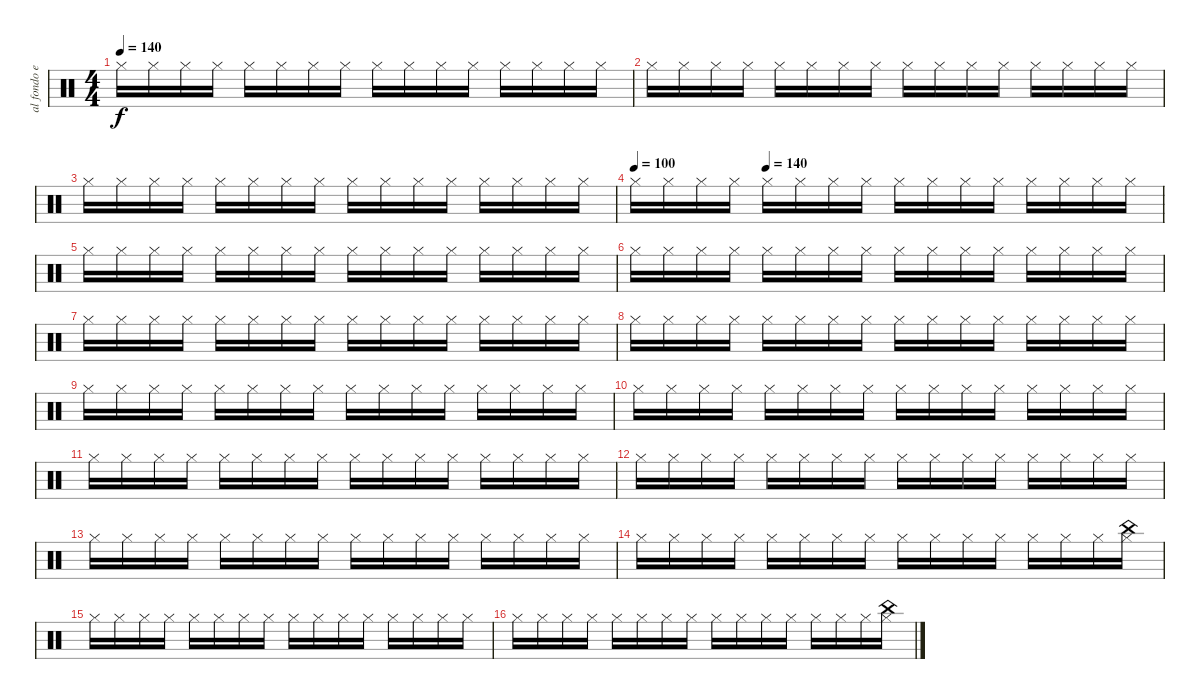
\track ("al fondo en la bateria Mr Pedro Andreu" "al fondo e") {instrument percussion}
\staff {score}
\articulation defaults
\ts (4 4)
\tempo 140
\clef neutral
\ks c "Hi-Hat (closed)".16{dy f} "Hi-Hat (closed)".16 "Hi-Hat (closed)".16 "Hi-Hat (closed)".16 "Hi-Hat (closed)".16 "Hi-Hat (closed)".16 "Hi-Hat (closed)".16 "Hi-Hat (closed)".16 "Hi-Hat (closed)".16 "Hi-Hat (closed)".16 "Hi-Hat (closed)".16 "Hi-Hat (closed)".16 "Hi-Hat (closed)".16 "Hi-Hat (closed)".16 "Hi-Hat (closed)".16 "Hi-Hat (closed)".16
|
"Hi-Hat (closed)".16 "Hi-Hat (closed)".16 "Hi-Hat (closed)".16 "Hi-Hat (closed)".16 "Hi-Hat (closed)".16 "Hi-Hat (closed)".16 "Hi-Hat (closed)".16 "Hi-Hat (closed)".16 "Hi-Hat (closed)".16 "Hi-Hat (closed)".16 "Hi-Hat (closed)".16 "Hi-Hat (closed)".16 "Hi-Hat (closed)".16 "Hi-Hat (closed)".16 "Hi-Hat (closed)".16 "Hi-Hat (closed)".16 |
"Hi-Hat (closed)".16 "Hi-Hat (closed)".16 "Hi-Hat (closed)".16 "Hi-Hat (closed)".16 "Hi-Hat (closed)".16 "Hi-Hat (closed)".16 "Hi-Hat (closed)".16 "Hi-Hat (closed)".16 "Hi-Hat (closed)".16 "Hi-Hat (closed)".16 "Hi-Hat (closed)".16 "Hi-Hat (closed)".16 "Hi-Hat (closed)".16 "Hi-Hat (closed)".16 "Hi-Hat (closed)".16 "Hi-Hat (closed)".16 |
\tempo 100
\tempo (140 0.25)
"Hi-Hat (closed)".16 "Hi-Hat (closed)".16 "Hi-Hat (closed)".16 "Hi-Hat (closed)".16 "Hi-Hat (closed)".16 "Hi-Hat (closed)".16 "Hi-Hat (closed)".16 "Hi-Hat (closed)".16 "Hi-Hat (closed)".16 "Hi-Hat (closed)".16 "Hi-Hat (closed)".16 "Hi-Hat (closed)".16 "Hi-Hat (closed)".16 "Hi-Hat (closed)".16 "Hi-Hat (closed)".16 "Hi-Hat (closed)".16 |
"Hi-Hat (closed)".16 "Hi-Hat (closed)".16 "Hi-Hat (closed)".16 "Hi-Hat (closed)".16 "Hi-Hat (closed)".16 "Hi-Hat (closed)".16 "Hi-Hat (closed)".16 "Hi-Hat (closed)".16 "Hi-Hat (closed)".16 "Hi-Hat (closed)".16 "Hi-Hat (closed)".16 "Hi-Hat (closed)".16 "Hi-Hat (closed)".16 "Hi-Hat (closed)".16 "Hi-Hat (closed)".16 "Hi-Hat (closed)".16 |
"Hi-Hat (closed)".16 "Hi-Hat (closed)".16 "Hi-Hat (closed)".16 "Hi-Hat (closed)".16 "Hi-Hat (closed)".16 "Hi-Hat (closed)".16 "Hi-Hat (closed)".16 "Hi-Hat (closed)".16 "Hi-Hat (closed)".16 "Hi-Hat (closed)".16 "Hi-Hat (closed)".16 "Hi-Hat (closed)".16 "Hi-Hat (closed)".16 "Hi-Hat (closed)".16 "Hi-Hat (closed)".16 "Hi-Hat (closed)".16 |
"Hi-Hat (closed)".16 "Hi-Hat (closed)".16 "Hi-Hat (closed)".16 "Hi-Hat (closed)".16 "Hi-Hat (closed)".16 "Hi-Hat (closed)".16 "Hi-Hat (closed)".16 "Hi-Hat (closed)".16 "Hi-Hat (closed)".16 "Hi-Hat (closed)".16 "Hi-Hat (closed)".16 "Hi-Hat (closed)".16 "Hi-Hat (closed)".16 "Hi-Hat (closed)".16 "Hi-Hat (closed)".16 "Hi-Hat (closed)".16 |
"Hi-Hat (closed)".16 "Hi-Hat (closed)".16 "Hi-Hat (closed)".16 "Hi-Hat (closed)".16 "Hi-Hat (closed)".16 "Hi-Hat (closed)".16 "Hi-Hat (closed)".16 "Hi-Hat (closed)".16 "Hi-Hat (closed)".16 "Hi-Hat (closed)".16 "Hi-Hat (closed)".16 "Hi-Hat (closed)".16 "Hi-Hat (closed)".16 "Hi-Hat (closed)".16 "Hi-Hat (closed)".16 "Hi-Hat (closed)".16 |
"Hi-Hat (closed)".16 "Hi-Hat (closed)".16 "Hi-Hat (closed)".16 "Hi-Hat (closed)".16 "Hi-Hat (closed)".16 "Hi-Hat (closed)".16 "Hi-Hat (closed)".16 "Hi-Hat (closed)".16 "Hi-Hat (closed)".16 "Hi-Hat (closed)".16 "Hi-Hat (closed)".16 "Hi-Hat (closed)".16 "Hi-Hat (closed)".16 "Hi-Hat (closed)".16 "Hi-Hat (closed)".16 "Hi-Hat (closed)".16 |
"Hi-Hat (closed)".16 "Hi-Hat (closed)".16 "Hi-Hat (closed)".16 "Hi-Hat (closed)".16 "Hi-Hat (closed)".16 "Hi-Hat (closed)".16 "Hi-Hat (closed)".16 "Hi-Hat (closed)".16 "Hi-Hat (closed)".16 "Hi-Hat (closed)".16 "Hi-Hat (closed)".16 "Hi-Hat (closed)".16 "Hi-Hat (closed)".16 "Hi-Hat (closed)".16 "Hi-Hat (closed)".16 "Hi-Hat (closed)".16 |
"Hi-Hat (closed)".16 "Hi-Hat (closed)".16 "Hi-Hat (closed)".16 "Hi-Hat (closed)".16 "Hi-Hat (closed)".16 "Hi-Hat (closed)".16 "Hi-Hat (closed)".16 "Hi-Hat (closed)".16 "Hi-Hat (closed)".16 "Hi-Hat (closed)".16 "Hi-Hat (closed)".16 "Hi-Hat (closed)".16 "Hi-Hat (closed)".16 "Hi-Hat (closed)".16 "Hi-Hat (closed)".16 "Hi-Hat (closed)".16 |
"Hi-Hat (closed)".16 "Hi-Hat (closed)".16 "Hi-Hat (closed)".16 "Hi-Hat (closed)".16 "Hi-Hat (closed)".16 "Hi-Hat (closed)".16 "Hi-Hat (closed)".16 "Hi-Hat (closed)".16 "Hi-Hat (closed)".16 "Hi-Hat (closed)".16 "Hi-Hat (closed)".16 "Hi-Hat (closed)".16 "Hi-Hat (closed)".16 "Hi-Hat (closed)".16 "Hi-Hat (closed)".16 "Hi-Hat (closed)".16 |
"Hi-Hat (closed)".16 "Hi-Hat (closed)".16 "Hi-Hat (closed)".16 "Hi-Hat (closed)".16 "Hi-Hat (closed)".16 "Hi-Hat (closed)".16 "Hi-Hat (closed)".16 "Hi-Hat (closed)".16 "Hi-Hat (closed)".16 "Hi-Hat (closed)".16 "Hi-Hat (closed)".16 "Hi-Hat (closed)".16 "Hi-Hat (closed)".16 "Hi-Hat (closed)".16 "Hi-Hat (closed)".16 "Hi-Hat (closed)".16 |
"Hi-Hat (closed)".16 "Hi-Hat (closed)".16 "Hi-Hat (closed)".16 "Hi-Hat (closed)".16 "Hi-Hat (closed)".16 "Hi-Hat (closed)".16 "Hi-Hat (closed)".16 "Hi-Hat (closed)".16 "Hi-Hat (closed)".16 "Hi-Hat (closed)".16 "Hi-Hat (closed)".16 "Hi-Hat (closed)".16 "Hi-Hat (closed)".16 "Hi-Hat (closed)".16 "Hi-Hat (closed)".16 ("Hi-Hat (closed)" "China (hit)").16 |
"Hi-Hat (closed)".16 "Hi-Hat (closed)".16 "Hi-Hat (closed)".16 "Hi-Hat (closed)".16 "Hi-Hat (closed)".16 "Hi-Hat (closed)".16 "Hi-Hat (closed)".16 "Hi-Hat (closed)".16 "Hi-Hat (closed)".16 "Hi-Hat (closed)".16 "Hi-Hat (closed)".16 "Hi-Hat (closed)".16 "Hi-Hat (closed)".16 "Hi-Hat (closed)".16 "Hi-Hat (closed)".16 "Hi-Hat (closed)".16 |
"Hi-Hat (closed)".16 "Hi-Hat (closed)".16 "Hi-Hat (closed)".16 "Hi-Hat (closed)".16 "Hi-Hat (closed)".16 "Hi-Hat (closed)".16 "Hi-Hat (closed)".16 "Hi-Hat (closed)".16 "Hi-Hat (closed)".16 "Hi-Hat (closed)".16 "Hi-Hat (closed)".16 "Hi-Hat (closed)".16 "Hi-Hat (closed)".16 "Hi-Hat (closed)".16 "Hi-Hat (closed)".16 ("Hi-Hat (closed)" "China (hit)").16
